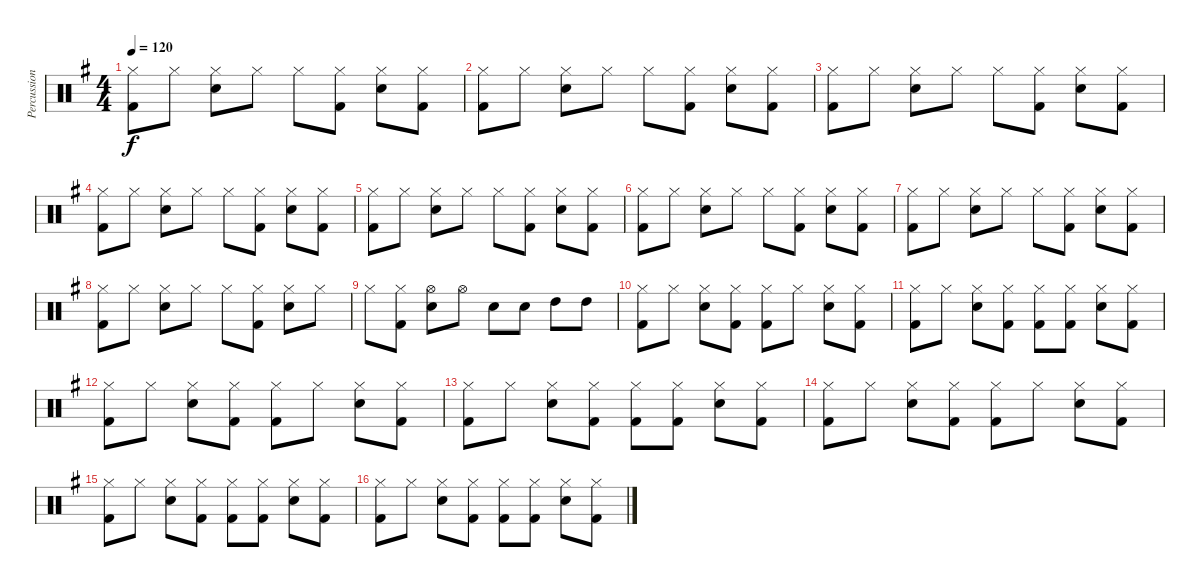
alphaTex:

\track ("Percussion" "Percussion") {instrument percussion}
\staff {score}
\articulation defaults
\ts (4 4)
\tempo 120
\clef neutral
\ks g
("Hi-Hat (closed)" "Kick (hit) 2").8{dy f} "Hi-Hat (closed)".8 ("Hi-Hat (closed)" "Snare (hit) 2").8 "Hi-Hat (closed)".8 "Hi-Hat (closed)".8 ("Hi-Hat (closed)" "Kick (hit) 2").8 ("Hi-Hat (closed)" "Snare (hit) 2").8 ("Hi-Hat (closed)" "Kick (hit) 2").8 |
("Hi-Hat (closed)" "Kick (hit) 2").8 "Hi-Hat (closed)".8 ("Hi-Hat (closed)" "Snare (hit) 2").8 "Hi-Hat (closed)".8 "Hi-Hat (closed)".8 ("Hi-Hat (closed)" "Kick (hit) 2").8 ("Hi-Hat (closed)" "Snare (hit) 2").8 ("Hi-Hat (closed)" "Kick (hit) 2").8 |
("Hi-Hat (closed)" "Kick (hit) 2").8 "Hi-Hat (closed)".8 ("Hi-Hat (closed)" "Snare (hit) 2").8 "Hi-Hat (closed)".8 "Hi-Hat (closed)".8 ("Hi-Hat (closed)" "Kick (hit) 2").8 ("Hi-Hat (closed)" "Snare (hit) 2").8 ("Hi-Hat (closed)" "Kick (hit) 2").8 |
("Hi-Hat (closed)" "Kick (hit) 2").8 "Hi-Hat (closed)".8 ("Hi-Hat (closed)" "Snare (hit) 2").8 "Hi-Hat (closed)".8 "Hi-Hat (closed)".8 ("Hi-Hat (closed)" "Kick (hit) 2").8 ("Hi-Hat (closed)" "Snare (hit) 2").8 ("Hi-Hat (closed)" "Kick (hit) 2").8 |
("Hi-Hat (closed)" "Kick (hit) 2").8 "Hi-Hat (closed)".8 ("Hi-Hat (closed)" "Snare (hit) 2").8 "Hi-Hat (closed)".8 "Hi-Hat (closed)".8 ("Hi-Hat (closed)" "Kick (hit) 2").8 ("Hi-Hat (closed)" "Snare (hit) 2").8 ("Hi-Hat (closed)" "Kick (hit) 2").8 |
("Hi-Hat (closed)" "Kick (hit) 2").8 "Hi-Hat (closed)".8 ("Hi-Hat (closed)" "Snare (hit) 2").8 "Hi-Hat (closed)".8 "Hi-Hat (closed)".8 ("Hi-Hat (closed)" "Kick (hit) 2").8 ("Hi-Hat (closed)" "Snare (hit) 2").8 ("Hi-Hat (closed)" "Kick (hit) 2").8 |
("Hi-Hat (closed)" "Kick (hit) 2").8 "Hi-Hat (closed)".8 ("Hi-Hat (closed)" "Snare (hit) 2").8 "Hi-Hat (closed)".8 "Hi-Hat (closed)".8 ("Hi-Hat (closed)" "Kick (hit) 2").8 ("Hi-Hat (closed)" "Snare (hit) 2").8 ("Hi-Hat (closed)" "Kick (hit) 2").8 |
("Hi-Hat (closed)" "Kick (hit) 2").8 "Hi-Hat (closed)".8 ("Hi-Hat (closed)" "Snare (hit) 2").8 "Hi-Hat (closed)".8 "Hi-Hat (closed)".8 ("Hi-Hat (closed)" "Kick (hit) 2").8 ("Hi-Hat (closed)" "Snare (hit) 2").8 "Hi-Hat (closed)".8 |
"Hi-Hat (closed)".8 ("Hi-Hat (closed)" "Kick (hit) 2").8 ("Hi-Hat (open)" "Snare (hit) 2").8 "Hi-Hat (open)".8 "Snare (hit) 2".8 "Snare (hit) 2".8 "High Tom (hit)".8 "High Tom (hit)".8 |
("Hi-Hat (closed)" "Kick (hit) 2").8 "Hi-Hat (closed)".8 ("Hi-Hat (closed)" "Snare (hit) 2").8 ("Hi-Hat (closed)" "Kick (hit) 2").8 ("Hi-Hat (closed)" "Kick (hit) 2").8 "Hi-Hat (closed)".8 ("Hi-Hat (closed)" "Snare (hit) 2").8 ("Hi-Hat (closed)" "Kick (hit) 2").8 |
("Hi-Hat (closed)" "Kick (hit) 2").8 "Hi-Hat (closed)".8 ("Hi-Hat (closed)" "Snare (hit) 2").8 ("Hi-Hat (closed)" "Kick (hit) 2").8 ("Hi-Hat (closed)" "Kick (hit) 2").8 ("Hi-Hat (closed)" "Kick (hit) 2").8 ("Hi-Hat (closed)" "Snare (hit) 2").8 ("Hi-Hat (closed)" "Kick (hit) 2").8 |
("Hi-Hat (closed)" "Kick (hit) 2").8 "Hi-Hat (closed)".8 ("Hi-Hat (closed)" "Snare (hit) 2").8 ("Hi-Hat (closed)" "Kick (hit) 2").8 ("Hi-Hat (closed)" "Kick (hit) 2").8 "Hi-Hat (closed)".8 ("Hi-Hat (closed)" "Snare (hit) 2").8 ("Hi-Hat (closed)" "Kick (hit) 2").8 |
("Hi-Hat (closed)" "Kick (hit) 2").8 "Hi-Hat (closed)".8 ("Hi-Hat (closed)" "Snare (hit) 2").8 ("Hi-Hat (closed)" "Kick (hit) 2").8 ("Hi-Hat (closed)" "Kick (hit) 2").8 ("Hi-Hat (closed)" "Kick (hit) 2").8 ("Hi-Hat (closed)" "Snare (hit) 2").8 ("Hi-Hat (closed)" "Kick (hit) 2").8 |
("Hi-Hat (closed)" "Kick (hit) 2").8 "Hi-Hat (closed)".8 ("Hi-Hat (closed)" "Snare (hit) 2").8 ("Hi-Hat (closed)" "Kick (hit) 2").8 ("Hi-Hat (closed)" "Kick (hit) 2").8 "Hi-Hat (closed)".8 ("Hi-Hat (closed)" "Snare (hit) 2").8 ("Hi-Hat (closed)" "Kick (hit) 2").8 |
("Hi-Hat (closed)" "Kick (hit) 2").8 "Hi-Hat (closed)".8 ("Hi-Hat (closed)" "Snare (hit) 2").8 ("Hi-Hat (closed)" "Kick (hit) 2").8 ("Hi-Hat (closed)" "Kick (hit) 2").8 ("Hi-Hat (closed)" "Kick (hit) 2").8 ("Hi-Hat (closed)" "Snare (hit) 2").8 ("Hi-Hat (closed)" "Kick (hit) 2").8 |
("Hi-Hat (closed)" "Kick (hit) 2").8 "Hi-Hat (closed)".8 ("Hi-Hat (closed)" "Snare (hit) 2").8 ("Hi-Hat (closed)" "Kick (hit) 2").8 ("Hi-Hat (closed)" "Kick (hit) 2").8 ("Hi-Hat (closed)" "Kick (hit) 2").8 ("Hi-Hat (closed)" "Snare (hit) 2").8 ("Hi-Hat (closed)" "Kick (hit) 2").8
